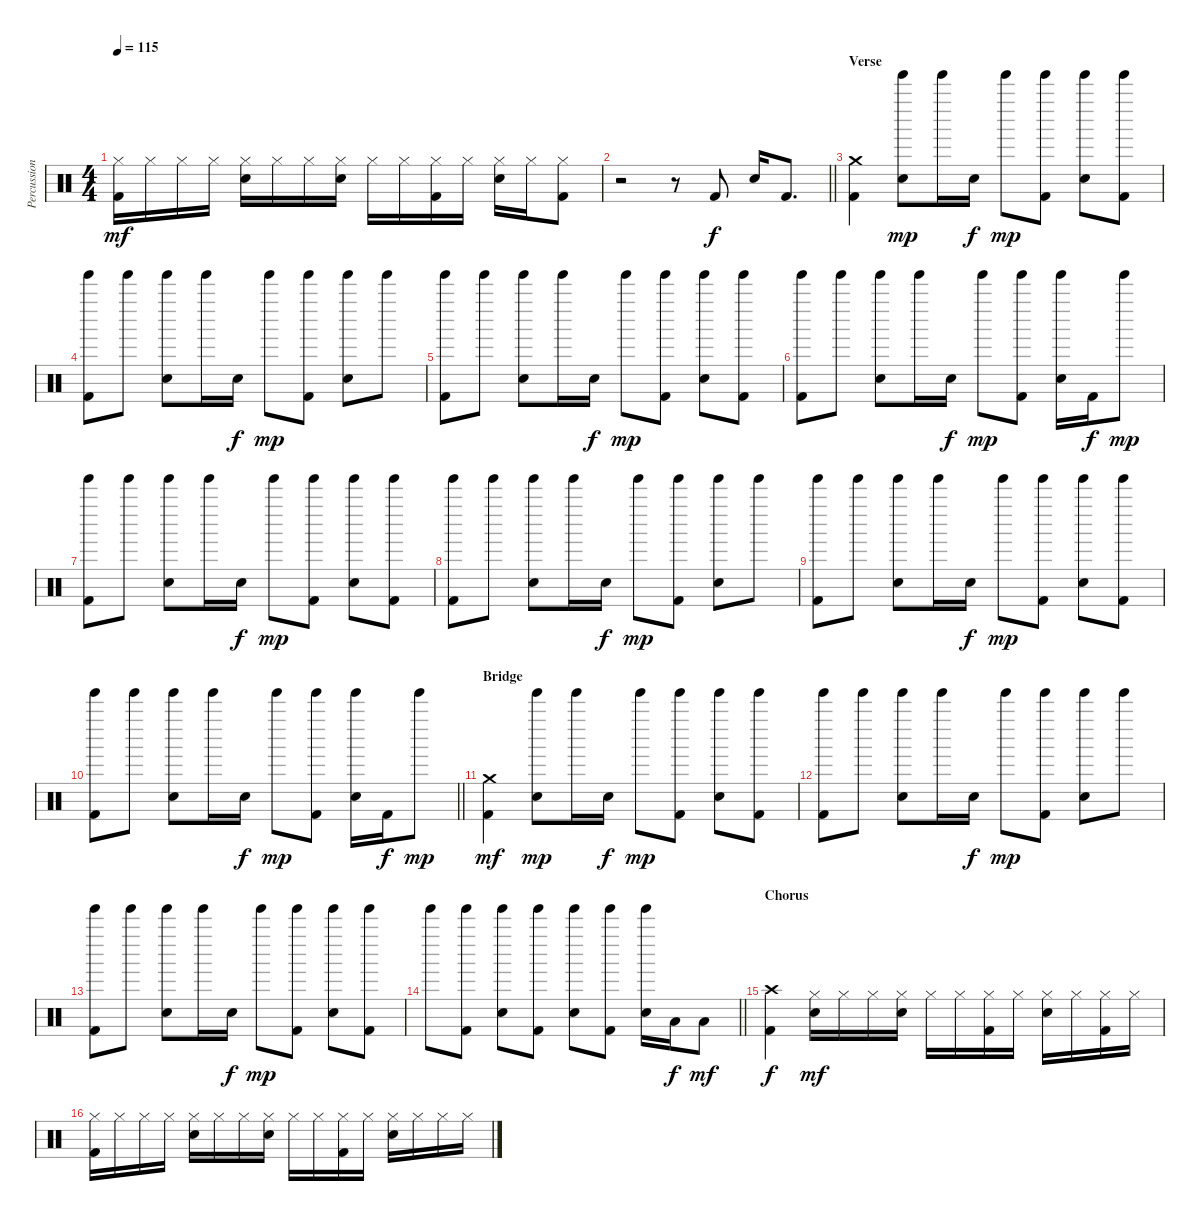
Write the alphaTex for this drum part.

\track ("Percussion" "Percussion") {instrument percussion}
\staff {score}
\articulation defaults
\ts (4 4)
\tempo 115
\clef neutral
\ks c
("Hi-Hat (closed)" "Kick (hit) 2").16{dy mf} "Hi-Hat (closed)".16 "Hi-Hat (closed)".16 "Hi-Hat (closed)".16 ("Hi-Hat (closed)" "Electric Snare (hit)").16 "Hi-Hat (closed)".16 "Hi-Hat (closed)".16 ("Hi-Hat (closed)" "Electric Snare (hit)").16 "Hi-Hat (closed)".16 "Hi-Hat (closed)".16 ("Hi-Hat (closed)" "Kick (hit) 2").16 "Hi-Hat (closed)".16 ("Hi-Hat (closed)" "Electric Snare (hit)").16 "Hi-Hat (closed)".16 ("Hi-Hat (closed)" "Kick (hit) 2").8 |
\barLineRight lightlight
r.2 r.8 "Kick (hit) 2".8{dy f} "Electric Snare (hit)".16 "Kick (hit) 2".8{d} |
\section ("" "Verse")
("Crash medium (hit)" "Kick (hit) 2").4 ("Tinkle Bell (hit)" "Electric Snare (hit)").8{dy mp} "Tinkle Bell (hit)".16 "Electric Snare (hit)".16{dy f} "Tinkle Bell (hit)".8{dy mp} ("Tinkle Bell (hit)" "Kick (hit) 2").8 ("Tinkle Bell (hit)" "Electric Snare (hit)").8 ("Tinkle Bell (hit)" "Kick (hit) 2").8 |
("Tinkle Bell (hit)" "Kick (hit) 2").8 "Tinkle Bell (hit)".8 ("Tinkle Bell (hit)" "Electric Snare (hit)").8 "Tinkle Bell (hit)".16 "Electric Snare (hit)".16{dy f} "Tinkle Bell (hit)".8{dy mp} ("Tinkle Bell (hit)" "Kick (hit) 2").8 ("Tinkle Bell (hit)" "Electric Snare (hit)").8 "Tinkle Bell (hit)".8 |
("Tinkle Bell (hit)" "Kick (hit) 2").8 "Tinkle Bell (hit)".8 ("Tinkle Bell (hit)" "Electric Snare (hit)").8 "Tinkle Bell (hit)".16 "Electric Snare (hit)".16{dy f} "Tinkle Bell (hit)".8{dy mp} ("Tinkle Bell (hit)" "Kick (hit) 2").8 ("Tinkle Bell (hit)" "Electric Snare (hit)").8 ("Tinkle Bell (hit)" "Kick (hit) 2").8 |
("Tinkle Bell (hit)" "Kick (hit) 2").8 "Tinkle Bell (hit)".8 ("Tinkle Bell (hit)" "Electric Snare (hit)").8 "Tinkle Bell (hit)".16 "Electric Snare (hit)".16{dy f} "Tinkle Bell (hit)".8{dy mp} ("Tinkle Bell (hit)" "Kick (hit) 2").8 ("Tinkle Bell (hit)" "Electric Snare (hit)").16 "Kick (hit) 2".16{dy f} "Tinkle Bell (hit)".8{dy mp} |
("Tinkle Bell (hit)" "Kick (hit) 2").8 "Tinkle Bell (hit)".8 ("Tinkle Bell (hit)" "Electric Snare (hit)").8 "Tinkle Bell (hit)".16 "Electric Snare (hit)".16{dy f} "Tinkle Bell (hit)".8{dy mp} ("Tinkle Bell (hit)" "Kick (hit) 2").8 ("Tinkle Bell (hit)" "Electric Snare (hit)").8 ("Tinkle Bell (hit)" "Kick (hit) 2").8 |
("Tinkle Bell (hit)" "Kick (hit) 2").8 "Tinkle Bell (hit)".8 ("Tinkle Bell (hit)" "Electric Snare (hit)").8 "Tinkle Bell (hit)".16 "Electric Snare (hit)".16{dy f} "Tinkle Bell (hit)".8{dy mp} ("Tinkle Bell (hit)" "Kick (hit) 2").8 ("Tinkle Bell (hit)" "Electric Snare (hit)").8 "Tinkle Bell (hit)".8 |
("Tinkle Bell (hit)" "Kick (hit) 2").8 "Tinkle Bell (hit)".8 ("Tinkle Bell (hit)" "Electric Snare (hit)").8 "Tinkle Bell (hit)".16 "Electric Snare (hit)".16{dy f} "Tinkle Bell (hit)".8{dy mp} ("Tinkle Bell (hit)" "Kick (hit) 2").8 ("Tinkle Bell (hit)" "Electric Snare (hit)").8 ("Tinkle Bell (hit)" "Kick (hit) 2").8 |
\barLineRight lightlight
("Tinkle Bell (hit)" "Kick (hit) 2").8 "Tinkle Bell (hit)".8 ("Tinkle Bell (hit)" "Electric Snare (hit)").8 "Tinkle Bell (hit)".16 "Electric Snare (hit)".16{dy f} "Tinkle Bell (hit)".8{dy mp} ("Tinkle Bell (hit)" "Kick (hit) 2").8 ("Tinkle Bell (hit)" "Electric Snare (hit)").16 "Kick (hit) 2".16{dy f} "Tinkle Bell (hit)".8{dy mp} |
\section ("" "Bridge")
("Crash medium (hit)" "Kick (hit) 2").4{dy mf} ("Tinkle Bell (hit)" "Electric Snare (hit)").8{dy mp} "Tinkle Bell (hit)".16 "Electric Snare (hit)".16{dy f} "Tinkle Bell (hit)".8{dy mp} ("Tinkle Bell (hit)" "Kick (hit) 2").8 ("Tinkle Bell (hit)" "Electric Snare (hit)").8 ("Tinkle Bell (hit)" "Kick (hit) 2").8 |
("Tinkle Bell (hit)" "Kick (hit) 2").8 "Tinkle Bell (hit)".8 ("Tinkle Bell (hit)" "Electric Snare (hit)").8 "Tinkle Bell (hit)".16 "Electric Snare (hit)".16{dy f} "Tinkle Bell (hit)".8{dy mp} ("Tinkle Bell (hit)" "Kick (hit) 2").8 ("Tinkle Bell (hit)" "Electric Snare (hit)").8 "Tinkle Bell (hit)".8 |
("Tinkle Bell (hit)" "Kick (hit) 2").8 "Tinkle Bell (hit)".8 ("Tinkle Bell (hit)" "Electric Snare (hit)").8 "Tinkle Bell (hit)".16 "Electric Snare (hit)".16{dy f} "Tinkle Bell (hit)".8{dy mp} ("Tinkle Bell (hit)" "Kick (hit) 2").8 ("Tinkle Bell (hit)" "Electric Snare (hit)").8 ("Tinkle Bell (hit)" "Kick (hit) 2").8 |
\barLineRight lightlight "Tinkle Bell (hit)".8
("Tinkle Bell (hit)" "Kick (hit) 2").8 ("Tinkle Bell (hit)" "Electric Snare (hit)").8 ("Tinkle Bell (hit)" "Kick (hit) 2").8 ("Tinkle Bell (hit)" "Electric Snare (hit)").8 ("Tinkle Bell (hit)" "Kick (hit) 2").8 ("Tinkle Bell (hit)" "Electric Snare (hit)").16 "Low Tom (hit)".16{dy f} "Low Tom (hit)".8{dy mf} |
\section ("" "Chorus")
("Crash high (hit)" "Kick (hit) 2").4{dy f} ("Hi-Hat (closed)" "Electric Snare (hit)").16{dy mf} "Hi-Hat (closed)".16 "Hi-Hat (closed)".16 ("Hi-Hat (closed)" "Electric Snare (hit)").16 "Hi-Hat (closed)".16 "Hi-Hat (closed)".16 ("Hi-Hat (closed)" "Kick (hit) 2").16 "Hi-Hat (closed)".16 ("Hi-Hat (closed)" "Electric Snare (hit)").16 "Hi-Hat (closed)".16 ("Hi-Hat (closed)" "Kick (hit) 2").16 "Hi-Hat (closed)".16 |
("Hi-Hat (closed)" "Kick (hit) 2").16 "Hi-Hat (closed)".16 "Hi-Hat (closed)".16 "Hi-Hat (closed)".16 ("Hi-Hat (closed)" "Electric Snare (hit)").16 "Hi-Hat (closed)".16 "Hi-Hat (closed)".16 ("Hi-Hat (closed)" "Electric Snare (hit)").16 "Hi-Hat (closed)".16 "Hi-Hat (closed)".16 ("Hi-Hat (closed)" "Kick (hit) 2").16 "Hi-Hat (closed)".16 ("Hi-Hat (closed)" "Electric Snare (hit)").16 "Hi-Hat (closed)".16 "Hi-Hat (closed)".16 "Hi-Hat (closed)".16
